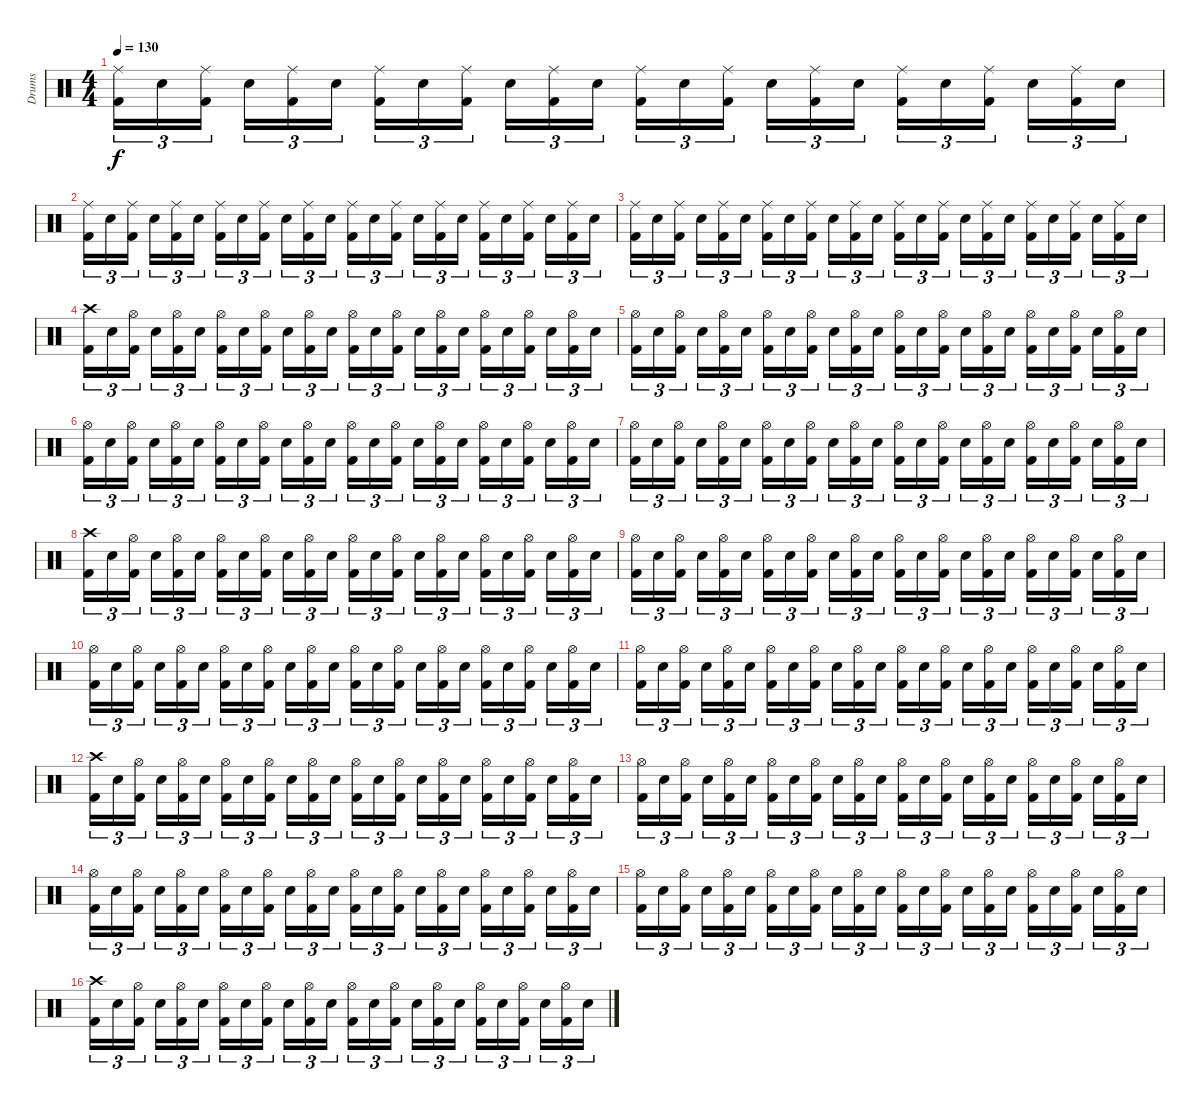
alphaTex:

\track ("Drums" "Drums") {instrument percussion}
\staff {score}
\articulation defaults
\ts (4 4)
\tempo 130
\clef neutral
\ks c
("Ride (middle)" "Kick (hit) 2").16{tu (3 2) dy f} "Electric Snare (hit)".16{tu (3 2)} ("Ride (middle)" "Kick (hit) 2").16{tu (3 2)} "Electric Snare (hit)".16{tu (3 2)} ("Ride (middle)" "Kick (hit) 2").16{tu (3 2)} "Electric Snare (hit)".16{tu (3 2)} ("Ride (middle)" "Kick (hit) 2").16{tu (3 2)} "Electric Snare (hit)".16{tu (3 2)} ("Ride (middle)" "Kick (hit) 2").16{tu (3 2)} "Electric Snare (hit)".16{tu (3 2)} ("Ride (middle)" "Kick (hit) 2").16{tu (3 2)} "Electric Snare (hit)".16{tu (3 2)} ("Ride (middle)" "Kick (hit) 2").16{tu (3 2)} "Electric Snare (hit)".16{tu (3 2)} ("Ride (middle)" "Kick (hit) 2").16{tu (3 2)} "Electric Snare (hit)".16{tu (3 2)} ("Ride (middle)" "Kick (hit) 2").16{tu (3 2)} "Electric Snare (hit)".16{tu (3 2)} ("Ride (middle)" "Kick (hit) 2").16{tu (3 2)} "Electric Snare (hit)".16{tu (3 2)} ("Ride (middle)" "Kick (hit) 2").16{tu (3 2)} "Electric Snare (hit)".16{tu (3 2)} ("Ride (middle)" "Kick (hit) 2").16{tu (3 2)} "Electric Snare (hit)".16{tu (3 2)} |
("Ride (middle)" "Kick (hit) 2").16{tu (3 2)} "Electric Snare (hit)".16{tu (3 2)} ("Ride (middle)" "Kick (hit) 2").16{tu (3 2)} "Electric Snare (hit)".16{tu (3 2)} ("Ride (middle)" "Kick (hit) 2").16{tu (3 2)} "Electric Snare (hit)".16{tu (3 2)} ("Ride (middle)" "Kick (hit) 2").16{tu (3 2)} "Electric Snare (hit)".16{tu (3 2)} ("Ride (middle)" "Kick (hit) 2").16{tu (3 2)} "Electric Snare (hit)".16{tu (3 2)} ("Ride (middle)" "Kick (hit) 2").16{tu (3 2)} "Electric Snare (hit)".16{tu (3 2)} ("Ride (middle)" "Kick (hit) 2").16{tu (3 2)} "Electric Snare (hit)".16{tu (3 2)} ("Ride (middle)" "Kick (hit) 2").16{tu (3 2)} "Electric Snare (hit)".16{tu (3 2)} ("Ride (middle)" "Kick (hit) 2").16{tu (3 2)} "Electric Snare (hit)".16{tu (3 2)} ("Ride (middle)" "Kick (hit) 2").16{tu (3 2)} "Electric Snare (hit)".16{tu (3 2)} ("Ride (middle)" "Kick (hit) 2").16{tu (3 2)} "Electric Snare (hit)".16{tu (3 2)} ("Ride (middle)" "Kick (hit) 2").16{tu (3 2)} "Electric Snare (hit)".16{tu (3 2)} |
("Ride (middle)" "Kick (hit) 2").16{tu (3 2)} "Electric Snare (hit)".16{tu (3 2)} ("Ride (middle)" "Kick (hit) 2").16{tu (3 2)} "Electric Snare (hit)".16{tu (3 2)} ("Ride (middle)" "Kick (hit) 2").16{tu (3 2)} "Electric Snare (hit)".16{tu (3 2)} ("Ride (middle)" "Kick (hit) 2").16{tu (3 2)} "Electric Snare (hit)".16{tu (3 2)} ("Ride (middle)" "Kick (hit) 2").16{tu (3 2)} "Electric Snare (hit)".16{tu (3 2)} ("Ride (middle)" "Kick (hit) 2").16{tu (3 2)} "Electric Snare (hit)".16{tu (3 2)} ("Ride (middle)" "Kick (hit) 2").16{tu (3 2)} "Electric Snare (hit)".16{tu (3 2)} ("Ride (middle)" "Kick (hit) 2").16{tu (3 2)} "Electric Snare (hit)".16{tu (3 2)} ("Ride (middle)" "Kick (hit) 2").16{tu (3 2)} "Electric Snare (hit)".16{tu (3 2)} ("Ride (middle)" "Kick (hit) 2").16{tu (3 2)} "Electric Snare (hit)".16{tu (3 2)} ("Ride (middle)" "Kick (hit) 2").16{tu (3 2)} "Electric Snare (hit)".16{tu (3 2)} ("Ride (middle)" "Kick (hit) 2").16{tu (3 2)} "Electric Snare (hit)".16{tu (3 2)} |
("Crash high (hit)" "Kick (hit) 2").16{tu (3 2)} "Electric Snare (hit)".16{tu (3 2)} ("Hi-Hat (open)" "Kick (hit) 2").16{tu (3 2)} "Electric Snare (hit)".16{tu (3 2)} ("Hi-Hat (open)" "Kick (hit) 2").16{tu (3 2)} "Electric Snare (hit)".16{tu (3 2)} ("Hi-Hat (open)" "Kick (hit) 2").16{tu (3 2)} "Electric Snare (hit)".16{tu (3 2)} ("Hi-Hat (open)" "Kick (hit) 2").16{tu (3 2)} "Electric Snare (hit)".16{tu (3 2)} ("Hi-Hat (open)" "Kick (hit) 2").16{tu (3 2)} "Electric Snare (hit)".16{tu (3 2)} ("Hi-Hat (open)" "Kick (hit) 2").16{tu (3 2)} "Electric Snare (hit)".16{tu (3 2)} ("Hi-Hat (open)" "Kick (hit) 2").16{tu (3 2)} "Electric Snare (hit)".16{tu (3 2)} ("Hi-Hat (open)" "Kick (hit) 2").16{tu (3 2)} "Electric Snare (hit)".16{tu (3 2)} ("Hi-Hat (open)" "Kick (hit) 2").16{tu (3 2)} "Electric Snare (hit)".16{tu (3 2)} ("Hi-Hat (open)" "Kick (hit) 2").16{tu (3 2)} "Electric Snare (hit)".16{tu (3 2)} ("Hi-Hat (open)" "Kick (hit) 2").16{tu (3 2)} "Electric Snare (hit)".16{tu (3 2)} |
("Hi-Hat (open)" "Kick (hit) 2").16{tu (3 2)} "Electric Snare (hit)".16{tu (3 2)} ("Hi-Hat (open)" "Kick (hit) 2").16{tu (3 2)} "Electric Snare (hit)".16{tu (3 2)} ("Hi-Hat (open)" "Kick (hit) 2").16{tu (3 2)} "Electric Snare (hit)".16{tu (3 2)} ("Hi-Hat (open)" "Kick (hit) 2").16{tu (3 2)} "Electric Snare (hit)".16{tu (3 2)} ("Hi-Hat (open)" "Kick (hit) 2").16{tu (3 2)} "Electric Snare (hit)".16{tu (3 2)} ("Hi-Hat (open)" "Kick (hit) 2").16{tu (3 2)} "Electric Snare (hit)".16{tu (3 2)} ("Hi-Hat (open)" "Kick (hit) 2").16{tu (3 2)} "Electric Snare (hit)".16{tu (3 2)} ("Hi-Hat (open)" "Kick (hit) 2").16{tu (3 2)} "Electric Snare (hit)".16{tu (3 2)} ("Hi-Hat (open)" "Kick (hit) 2").16{tu (3 2)} "Electric Snare (hit)".16{tu (3 2)} ("Hi-Hat (open)" "Kick (hit) 2").16{tu (3 2)} "Electric Snare (hit)".16{tu (3 2)} ("Hi-Hat (open)" "Kick (hit) 2").16{tu (3 2)} "Electric Snare (hit)".16{tu (3 2)} ("Hi-Hat (open)" "Kick (hit) 2").16{tu (3 2)} "Electric Snare (hit)".16{tu (3 2)} |
("Hi-Hat (open)" "Kick (hit) 2").16{tu (3 2)} "Electric Snare (hit)".16{tu (3 2)} ("Hi-Hat (open)" "Kick (hit) 2").16{tu (3 2)} "Electric Snare (hit)".16{tu (3 2)} ("Hi-Hat (open)" "Kick (hit) 2").16{tu (3 2)} "Electric Snare (hit)".16{tu (3 2)} ("Hi-Hat (open)" "Kick (hit) 2").16{tu (3 2)} "Electric Snare (hit)".16{tu (3 2)} ("Hi-Hat (open)" "Kick (hit) 2").16{tu (3 2)} "Electric Snare (hit)".16{tu (3 2)} ("Hi-Hat (open)" "Kick (hit) 2").16{tu (3 2)} "Electric Snare (hit)".16{tu (3 2)} ("Hi-Hat (open)" "Kick (hit) 2").16{tu (3 2)} "Electric Snare (hit)".16{tu (3 2)} ("Hi-Hat (open)" "Kick (hit) 2").16{tu (3 2)} "Electric Snare (hit)".16{tu (3 2)} ("Hi-Hat (open)" "Kick (hit) 2").16{tu (3 2)} "Electric Snare (hit)".16{tu (3 2)} ("Hi-Hat (open)" "Kick (hit) 2").16{tu (3 2)} "Electric Snare (hit)".16{tu (3 2)} ("Hi-Hat (open)" "Kick (hit) 2").16{tu (3 2)} "Electric Snare (hit)".16{tu (3 2)} ("Hi-Hat (open)" "Kick (hit) 2").16{tu (3 2)} "Electric Snare (hit)".16{tu (3 2)} |
("Hi-Hat (open)" "Kick (hit) 2").16{tu (3 2)} "Electric Snare (hit)".16{tu (3 2)} ("Hi-Hat (open)" "Kick (hit) 2").16{tu (3 2)} "Electric Snare (hit)".16{tu (3 2)} ("Hi-Hat (open)" "Kick (hit) 2").16{tu (3 2)} "Electric Snare (hit)".16{tu (3 2)} ("Hi-Hat (open)" "Kick (hit) 2").16{tu (3 2)} "Electric Snare (hit)".16{tu (3 2)} ("Hi-Hat (open)" "Kick (hit) 2").16{tu (3 2)} "Electric Snare (hit)".16{tu (3 2)} ("Hi-Hat (open)" "Kick (hit) 2").16{tu (3 2)} "Electric Snare (hit)".16{tu (3 2)} ("Hi-Hat (open)" "Kick (hit) 2").16{tu (3 2)} "Electric Snare (hit)".16{tu (3 2)} ("Hi-Hat (open)" "Kick (hit) 2").16{tu (3 2)} "Electric Snare (hit)".16{tu (3 2)} ("Hi-Hat (open)" "Kick (hit) 2").16{tu (3 2)} "Electric Snare (hit)".16{tu (3 2)} ("Hi-Hat (open)" "Kick (hit) 2").16{tu (3 2)} "Electric Snare (hit)".16{tu (3 2)} ("Hi-Hat (open)" "Kick (hit) 2").16{tu (3 2)} "Electric Snare (hit)".16{tu (3 2)} ("Hi-Hat (open)" "Kick (hit) 2").16{tu (3 2)} "Electric Snare (hit)".16{tu (3 2)} |
("Crash high (hit)" "Kick (hit) 2").16{tu (3 2)} "Electric Snare (hit)".16{tu (3 2)} ("Hi-Hat (open)" "Kick (hit) 2").16{tu (3 2)} "Electric Snare (hit)".16{tu (3 2)} ("Hi-Hat (open)" "Kick (hit) 2").16{tu (3 2)} "Electric Snare (hit)".16{tu (3 2)} ("Hi-Hat (open)" "Kick (hit) 2").16{tu (3 2)} "Electric Snare (hit)".16{tu (3 2)} ("Hi-Hat (open)" "Kick (hit) 2").16{tu (3 2)} "Electric Snare (hit)".16{tu (3 2)} ("Hi-Hat (open)" "Kick (hit) 2").16{tu (3 2)} "Electric Snare (hit)".16{tu (3 2)} ("Hi-Hat (open)" "Kick (hit) 2").16{tu (3 2)} "Electric Snare (hit)".16{tu (3 2)} ("Hi-Hat (open)" "Kick (hit) 2").16{tu (3 2)} "Electric Snare (hit)".16{tu (3 2)} ("Hi-Hat (open)" "Kick (hit) 2").16{tu (3 2)} "Electric Snare (hit)".16{tu (3 2)} ("Hi-Hat (open)" "Kick (hit) 2").16{tu (3 2)} "Electric Snare (hit)".16{tu (3 2)} ("Hi-Hat (open)" "Kick (hit) 2").16{tu (3 2)} "Electric Snare (hit)".16{tu (3 2)} ("Hi-Hat (open)" "Kick (hit) 2").16{tu (3 2)} "Electric Snare (hit)".16{tu (3 2)} |
("Hi-Hat (open)" "Kick (hit) 2").16{tu (3 2)} "Electric Snare (hit)".16{tu (3 2)} ("Hi-Hat (open)" "Kick (hit) 2").16{tu (3 2)} "Electric Snare (hit)".16{tu (3 2)} ("Hi-Hat (open)" "Kick (hit) 2").16{tu (3 2)} "Electric Snare (hit)".16{tu (3 2)} ("Hi-Hat (open)" "Kick (hit) 2").16{tu (3 2)} "Electric Snare (hit)".16{tu (3 2)} ("Hi-Hat (open)" "Kick (hit) 2").16{tu (3 2)} "Electric Snare (hit)".16{tu (3 2)} ("Hi-Hat (open)" "Kick (hit) 2").16{tu (3 2)} "Electric Snare (hit)".16{tu (3 2)} ("Hi-Hat (open)" "Kick (hit) 2").16{tu (3 2)} "Electric Snare (hit)".16{tu (3 2)} ("Hi-Hat (open)" "Kick (hit) 2").16{tu (3 2)} "Electric Snare (hit)".16{tu (3 2)} ("Hi-Hat (open)" "Kick (hit) 2").16{tu (3 2)} "Electric Snare (hit)".16{tu (3 2)} ("Hi-Hat (open)" "Kick (hit) 2").16{tu (3 2)} "Electric Snare (hit)".16{tu (3 2)} ("Hi-Hat (open)" "Kick (hit) 2").16{tu (3 2)} "Electric Snare (hit)".16{tu (3 2)} ("Hi-Hat (open)" "Kick (hit) 2").16{tu (3 2)} "Electric Snare (hit)".16{tu (3 2)} |
("Hi-Hat (open)" "Kick (hit) 2").16{tu (3 2)} "Electric Snare (hit)".16{tu (3 2)} ("Hi-Hat (open)" "Kick (hit) 2").16{tu (3 2)} "Electric Snare (hit)".16{tu (3 2)} ("Hi-Hat (open)" "Kick (hit) 2").16{tu (3 2)} "Electric Snare (hit)".16{tu (3 2)} ("Hi-Hat (open)" "Kick (hit) 2").16{tu (3 2)} "Electric Snare (hit)".16{tu (3 2)} ("Hi-Hat (open)" "Kick (hit) 2").16{tu (3 2)} "Electric Snare (hit)".16{tu (3 2)} ("Hi-Hat (open)" "Kick (hit) 2").16{tu (3 2)} "Electric Snare (hit)".16{tu (3 2)} ("Hi-Hat (open)" "Kick (hit) 2").16{tu (3 2)} "Electric Snare (hit)".16{tu (3 2)} ("Hi-Hat (open)" "Kick (hit) 2").16{tu (3 2)} "Electric Snare (hit)".16{tu (3 2)} ("Hi-Hat (open)" "Kick (hit) 2").16{tu (3 2)} "Electric Snare (hit)".16{tu (3 2)} ("Hi-Hat (open)" "Kick (hit) 2").16{tu (3 2)} "Electric Snare (hit)".16{tu (3 2)} ("Hi-Hat (open)" "Kick (hit) 2").16{tu (3 2)} "Electric Snare (hit)".16{tu (3 2)} ("Hi-Hat (open)" "Kick (hit) 2").16{tu (3 2)} "Electric Snare (hit)".16{tu (3 2)} |
("Hi-Hat (open)" "Kick (hit) 2").16{tu (3 2)} "Electric Snare (hit)".16{tu (3 2)} ("Hi-Hat (open)" "Kick (hit) 2").16{tu (3 2)} "Electric Snare (hit)".16{tu (3 2)} ("Hi-Hat (open)" "Kick (hit) 2").16{tu (3 2)} "Electric Snare (hit)".16{tu (3 2)} ("Hi-Hat (open)" "Kick (hit) 2").16{tu (3 2)} "Electric Snare (hit)".16{tu (3 2)} ("Hi-Hat (open)" "Kick (hit) 2").16{tu (3 2)} "Electric Snare (hit)".16{tu (3 2)} ("Hi-Hat (open)" "Kick (hit) 2").16{tu (3 2)} "Electric Snare (hit)".16{tu (3 2)} ("Hi-Hat (open)" "Kick (hit) 2").16{tu (3 2)} "Electric Snare (hit)".16{tu (3 2)} ("Hi-Hat (open)" "Kick (hit) 2").16{tu (3 2)} "Electric Snare (hit)".16{tu (3 2)} ("Hi-Hat (open)" "Kick (hit) 2").16{tu (3 2)} "Electric Snare (hit)".16{tu (3 2)} ("Hi-Hat (open)" "Kick (hit) 2").16{tu (3 2)} "Electric Snare (hit)".16{tu (3 2)} ("Hi-Hat (open)" "Kick (hit) 2").16{tu (3 2)} "Electric Snare (hit)".16{tu (3 2)} ("Hi-Hat (open)" "Kick (hit) 2").16{tu (3 2)} "Electric Snare (hit)".16{tu (3 2)} |
("Crash high (hit)" "Kick (hit) 2").16{tu (3 2)} "Electric Snare (hit)".16{tu (3 2)} ("Hi-Hat (open)" "Kick (hit) 2").16{tu (3 2)} "Electric Snare (hit)".16{tu (3 2)} ("Hi-Hat (open)" "Kick (hit) 2").16{tu (3 2)} "Electric Snare (hit)".16{tu (3 2)} ("Hi-Hat (open)" "Kick (hit) 2").16{tu (3 2)} "Electric Snare (hit)".16{tu (3 2)} ("Hi-Hat (open)" "Kick (hit) 2").16{tu (3 2)} "Electric Snare (hit)".16{tu (3 2)} ("Hi-Hat (open)" "Kick (hit) 2").16{tu (3 2)} "Electric Snare (hit)".16{tu (3 2)} ("Hi-Hat (open)" "Kick (hit) 2").16{tu (3 2)} "Electric Snare (hit)".16{tu (3 2)} ("Hi-Hat (open)" "Kick (hit) 2").16{tu (3 2)} "Electric Snare (hit)".16{tu (3 2)} ("Hi-Hat (open)" "Kick (hit) 2").16{tu (3 2)} "Electric Snare (hit)".16{tu (3 2)} ("Hi-Hat (open)" "Kick (hit) 2").16{tu (3 2)} "Electric Snare (hit)".16{tu (3 2)} ("Hi-Hat (open)" "Kick (hit) 2").16{tu (3 2)} "Electric Snare (hit)".16{tu (3 2)} ("Hi-Hat (open)" "Kick (hit) 2").16{tu (3 2)} "Electric Snare (hit)".16{tu (3 2)} |
("Hi-Hat (open)" "Kick (hit) 2").16{tu (3 2)} "Electric Snare (hit)".16{tu (3 2)} ("Hi-Hat (open)" "Kick (hit) 2").16{tu (3 2)} "Electric Snare (hit)".16{tu (3 2)} ("Hi-Hat (open)" "Kick (hit) 2").16{tu (3 2)} "Electric Snare (hit)".16{tu (3 2)} ("Hi-Hat (open)" "Kick (hit) 2").16{tu (3 2)} "Electric Snare (hit)".16{tu (3 2)} ("Hi-Hat (open)" "Kick (hit) 2").16{tu (3 2)} "Electric Snare (hit)".16{tu (3 2)} ("Hi-Hat (open)" "Kick (hit) 2").16{tu (3 2)} "Electric Snare (hit)".16{tu (3 2)} ("Hi-Hat (open)" "Kick (hit) 2").16{tu (3 2)} "Electric Snare (hit)".16{tu (3 2)} ("Hi-Hat (open)" "Kick (hit) 2").16{tu (3 2)} "Electric Snare (hit)".16{tu (3 2)} ("Hi-Hat (open)" "Kick (hit) 2").16{tu (3 2)} "Electric Snare (hit)".16{tu (3 2)} ("Hi-Hat (open)" "Kick (hit) 2").16{tu (3 2)} "Electric Snare (hit)".16{tu (3 2)} ("Hi-Hat (open)" "Kick (hit) 2").16{tu (3 2)} "Electric Snare (hit)".16{tu (3 2)} ("Hi-Hat (open)" "Kick (hit) 2").16{tu (3 2)} "Electric Snare (hit)".16{tu (3 2)} |
("Hi-Hat (open)" "Kick (hit) 2").16{tu (3 2)} "Electric Snare (hit)".16{tu (3 2)} ("Hi-Hat (open)" "Kick (hit) 2").16{tu (3 2)} "Electric Snare (hit)".16{tu (3 2)} ("Hi-Hat (open)" "Kick (hit) 2").16{tu (3 2)} "Electric Snare (hit)".16{tu (3 2)} ("Hi-Hat (open)" "Kick (hit) 2").16{tu (3 2)} "Electric Snare (hit)".16{tu (3 2)} ("Hi-Hat (open)" "Kick (hit) 2").16{tu (3 2)} "Electric Snare (hit)".16{tu (3 2)} ("Hi-Hat (open)" "Kick (hit) 2").16{tu (3 2)} "Electric Snare (hit)".16{tu (3 2)} ("Hi-Hat (open)" "Kick (hit) 2").16{tu (3 2)} "Electric Snare (hit)".16{tu (3 2)} ("Hi-Hat (open)" "Kick (hit) 2").16{tu (3 2)} "Electric Snare (hit)".16{tu (3 2)} ("Hi-Hat (open)" "Kick (hit) 2").16{tu (3 2)} "Electric Snare (hit)".16{tu (3 2)} ("Hi-Hat (open)" "Kick (hit) 2").16{tu (3 2)} "Electric Snare (hit)".16{tu (3 2)} ("Hi-Hat (open)" "Kick (hit) 2").16{tu (3 2)} "Electric Snare (hit)".16{tu (3 2)} ("Hi-Hat (open)" "Kick (hit) 2").16{tu (3 2)} "Electric Snare (hit)".16{tu (3 2)} |
("Hi-Hat (open)" "Kick (hit) 2").16{tu (3 2)} "Electric Snare (hit)".16{tu (3 2)} ("Hi-Hat (open)" "Kick (hit) 2").16{tu (3 2)} "Electric Snare (hit)".16{tu (3 2)} ("Hi-Hat (open)" "Kick (hit) 2").16{tu (3 2)} "Electric Snare (hit)".16{tu (3 2)} ("Hi-Hat (open)" "Kick (hit) 2").16{tu (3 2)} "Electric Snare (hit)".16{tu (3 2)} ("Hi-Hat (open)" "Kick (hit) 2").16{tu (3 2)} "Electric Snare (hit)".16{tu (3 2)} ("Hi-Hat (open)" "Kick (hit) 2").16{tu (3 2)} "Electric Snare (hit)".16{tu (3 2)} ("Hi-Hat (open)" "Kick (hit) 2").16{tu (3 2)} "Electric Snare (hit)".16{tu (3 2)} ("Hi-Hat (open)" "Kick (hit) 2").16{tu (3 2)} "Electric Snare (hit)".16{tu (3 2)} ("Hi-Hat (open)" "Kick (hit) 2").16{tu (3 2)} "Electric Snare (hit)".16{tu (3 2)} ("Hi-Hat (open)" "Kick (hit) 2").16{tu (3 2)} "Electric Snare (hit)".16{tu (3 2)} ("Hi-Hat (open)" "Kick (hit) 2").16{tu (3 2)} "Electric Snare (hit)".16{tu (3 2)} ("Hi-Hat (open)" "Kick (hit) 2").16{tu (3 2)} "Electric Snare (hit)".16{tu (3 2)} |
("Crash high (hit)" "Kick (hit) 2").16{tu (3 2)} "Electric Snare (hit)".16{tu (3 2)} ("Hi-Hat (open)" "Kick (hit) 2").16{tu (3 2)} "Electric Snare (hit)".16{tu (3 2)} ("Hi-Hat (open)" "Kick (hit) 2").16{tu (3 2)} "Electric Snare (hit)".16{tu (3 2)} ("Hi-Hat (open)" "Kick (hit) 2").16{tu (3 2)} "Electric Snare (hit)".16{tu (3 2)} ("Hi-Hat (open)" "Kick (hit) 2").16{tu (3 2)} "Electric Snare (hit)".16{tu (3 2)} ("Hi-Hat (open)" "Kick (hit) 2").16{tu (3 2)} "Electric Snare (hit)".16{tu (3 2)} ("Hi-Hat (open)" "Kick (hit) 2").16{tu (3 2)} "Electric Snare (hit)".16{tu (3 2)} ("Hi-Hat (open)" "Kick (hit) 2").16{tu (3 2)} "Electric Snare (hit)".16{tu (3 2)} ("Hi-Hat (open)" "Kick (hit) 2").16{tu (3 2)} "Electric Snare (hit)".16{tu (3 2)} ("Hi-Hat (open)" "Kick (hit) 2").16{tu (3 2)} "Electric Snare (hit)".16{tu (3 2)} ("Hi-Hat (open)" "Kick (hit) 2").16{tu (3 2)} "Electric Snare (hit)".16{tu (3 2)} ("Hi-Hat (open)" "Kick (hit) 2").16{tu (3 2)} "Electric Snare (hit)".16{tu (3 2)}
